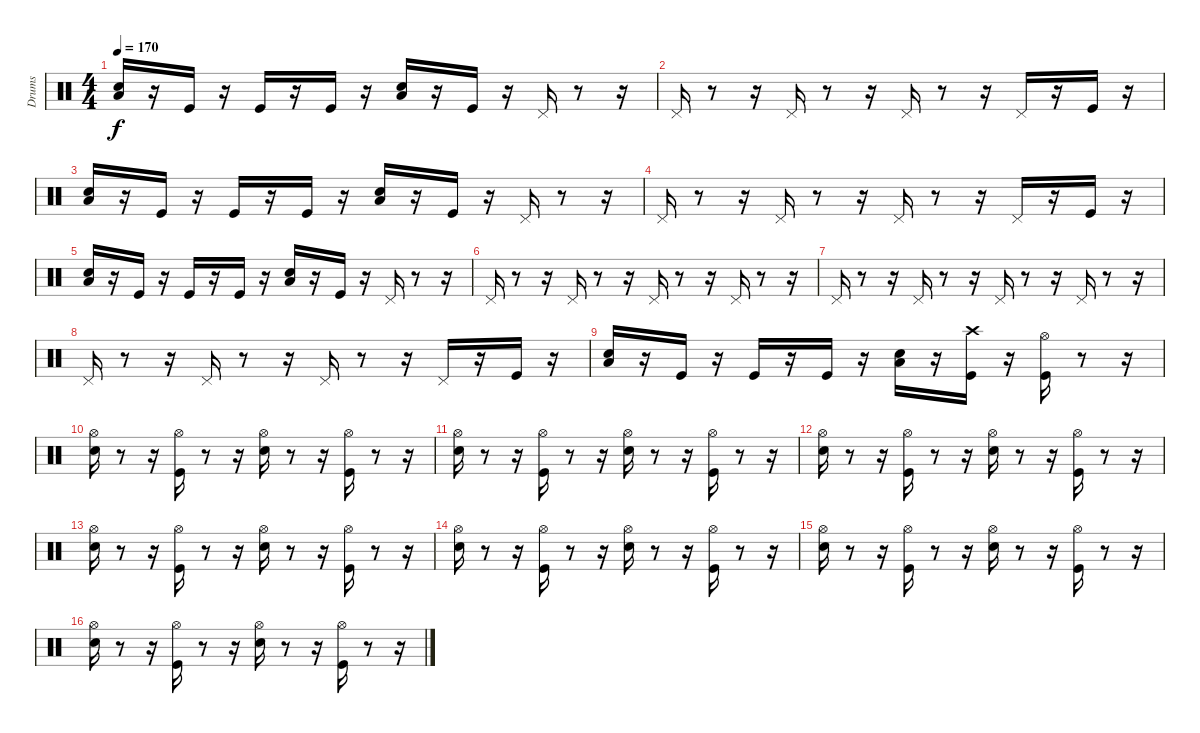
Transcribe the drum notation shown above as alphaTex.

\track ("Drums" "Drums") {instrument percussion}
\staff {score}
\articulation defaults
\ts (4 4)
\tempo 170
\clef neutral
\ks c
("Snare (hit) 2" "Low Tom (hit)").16{dy f} r.16 "Kick (hit)".16 r.16 "Kick (hit)".16 r.16 "Kick (hit)".16 r.16 ("Snare (hit) 2" "Low Tom (hit)").16 r.16 "Kick (hit)".16 r.16 "Pedal Hi-Hat (hit)".16 r.8 r.16 |
"Pedal Hi-Hat (hit)".16 r.8 r.16 "Pedal Hi-Hat (hit)".16 r.8 r.16 "Pedal Hi-Hat (hit)".16 r.8 r.16 "Pedal Hi-Hat (hit)".16 r.16 "Kick (hit)".16 r.16 |
("Snare (hit) 2" "Low Tom (hit)").16 r.16 "Kick (hit)".16 r.16 "Kick (hit)".16 r.16 "Kick (hit)".16 r.16 ("Snare (hit) 2" "Low Tom (hit)").16 r.16 "Kick (hit)".16 r.16 "Pedal Hi-Hat (hit)".16 r.8 r.16 |
"Pedal Hi-Hat (hit)".16 r.8 r.16 "Pedal Hi-Hat (hit)".16 r.8 r.16 "Pedal Hi-Hat (hit)".16 r.8 r.16 "Pedal Hi-Hat (hit)".16 r.16 "Kick (hit)".16 r.16 |
("Snare (hit) 2" "Low Tom (hit)").16 r.16 "Kick (hit)".16 r.16 "Kick (hit)".16 r.16 "Kick (hit)".16 r.16 ("Snare (hit) 2" "Low Tom (hit)").16 r.16 "Kick (hit)".16 r.16 "Pedal Hi-Hat (hit)".16 r.8 r.16 |
"Pedal Hi-Hat (hit)".16 r.8 r.16 "Pedal Hi-Hat (hit)".16 r.8 r.16 "Pedal Hi-Hat (hit)".16 r.8 r.16 "Pedal Hi-Hat (hit)".16 r.8 r.16 |
"Pedal Hi-Hat (hit)".16 r.8 r.16 "Pedal Hi-Hat (hit)".16 r.8 r.16 "Pedal Hi-Hat (hit)".16 r.8 r.16 "Pedal Hi-Hat (hit)".16 r.8 r.16 |
"Pedal Hi-Hat (hit)".16 r.8 r.16 "Pedal Hi-Hat (hit)".16 r.8 r.16 "Pedal Hi-Hat (hit)".16 r.8 r.16 "Pedal Hi-Hat (hit)".16 r.16 "Kick (hit)".16 r.16 |
("Snare (hit) 2" "Low Tom (hit)").16 r.16 "Kick (hit)".16 r.16 "Kick (hit)".16 r.16 "Kick (hit)".16 r.16 ("Snare (hit) 2" "Low Tom (hit)").16 r.16 ("Kick (hit)" "Crash high (hit)").16 r.16 ("Hi-Hat (open)" "Kick (hit)").16 r.8 r.16 |
("Hi-Hat (open)" "Snare (hit) 2").16 r.8 r.16 ("Kick (hit)" "Hi-Hat (open)").16 r.8 r.16 ("Snare (hit) 2" "Hi-Hat (open)").16 r.8 r.16 ("Kick (hit)" "Hi-Hat (open)").16 r.8 r.16 |
("Snare (hit) 2" "Hi-Hat (open)").16 r.8 r.16 ("Kick (hit)" "Hi-Hat (open)").16 r.8 r.16 ("Snare (hit) 2" "Hi-Hat (open)").16 r.8 r.16 ("Kick (hit)" "Hi-Hat (open)").16 r.8 r.16 |
("Snare (hit) 2" "Hi-Hat (open)").16 r.8 r.16 ("Kick (hit)" "Hi-Hat (open)").16 r.8 r.16 ("Snare (hit) 2" "Hi-Hat (open)").16 r.8 r.16 ("Kick (hit)" "Hi-Hat (open)").16 r.8 r.16 |
("Snare (hit) 2" "Hi-Hat (open)").16 r.8 r.16 ("Kick (hit)" "Hi-Hat (open)").16 r.8 r.16 ("Snare (hit) 2" "Hi-Hat (open)").16 r.8 r.16 ("Kick (hit)" "Hi-Hat (open)").16 r.8 r.16 |
("Snare (hit) 2" "Hi-Hat (open)").16 r.8 r.16 ("Kick (hit)" "Hi-Hat (open)").16 r.8 r.16 ("Snare (hit) 2" "Hi-Hat (open)").16 r.8 r.16 ("Kick (hit)" "Hi-Hat (open)").16 r.8 r.16 |
("Snare (hit) 2" "Hi-Hat (open)").16 r.8 r.16 ("Kick (hit)" "Hi-Hat (open)").16 r.8 r.16 ("Snare (hit) 2" "Hi-Hat (open)").16 r.8 r.16 ("Kick (hit)" "Hi-Hat (open)").16 r.8 r.16 |
("Snare (hit) 2" "Hi-Hat (open)").16 r.8 r.16 ("Kick (hit)" "Hi-Hat (open)").16 r.8 r.16 ("Snare (hit) 2" "Hi-Hat (open)").16 r.8 r.16 ("Kick (hit)" "Hi-Hat (open)").16 r.8 r.16
